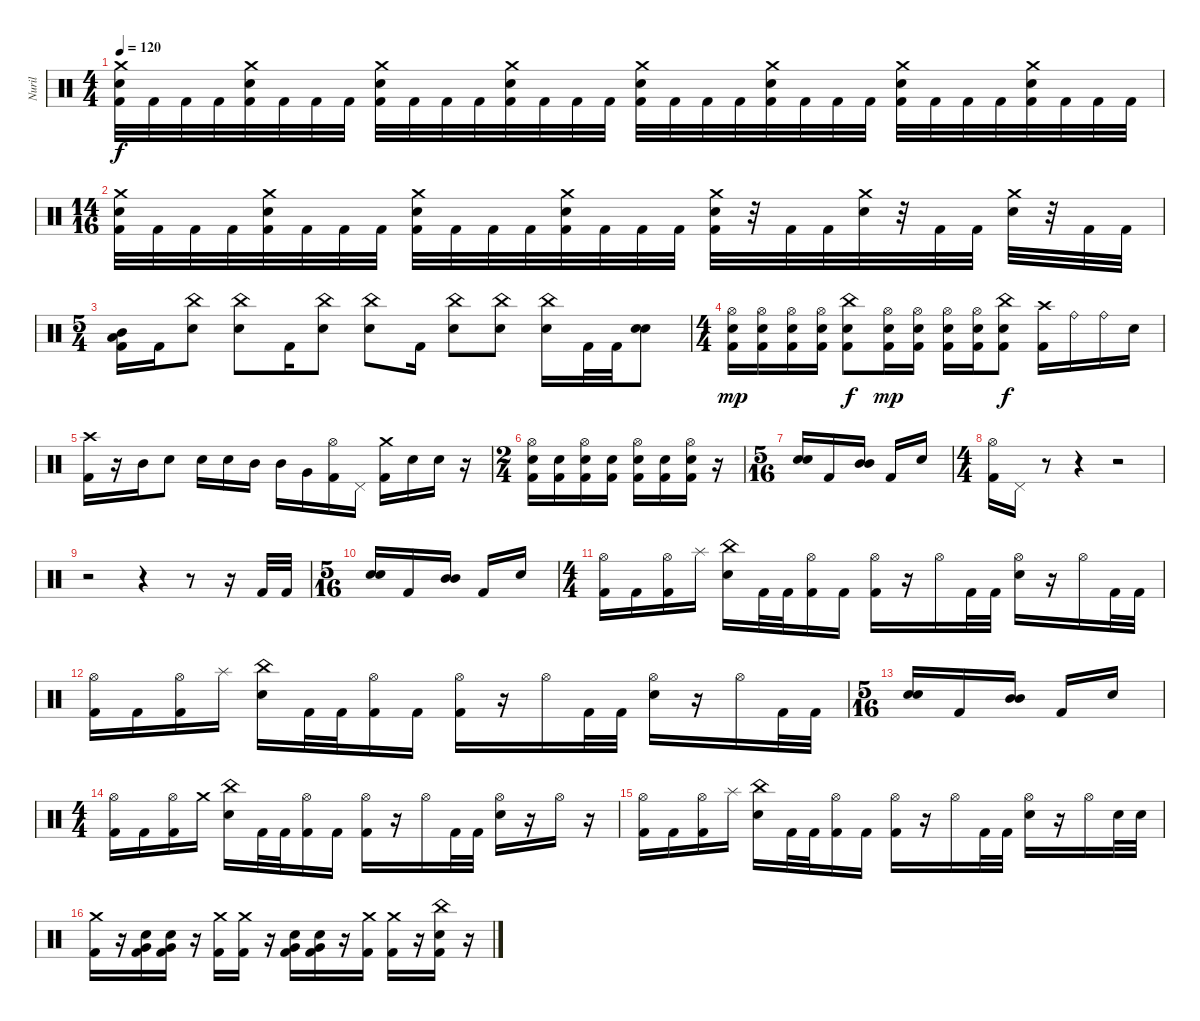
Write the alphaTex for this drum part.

\track ("Nuril" "Nuril") {instrument percussion}
\staff {score}
\articulation defaults
\ts (4 4)
\tempo 120
\clef neutral
\ks c
("Crash medium (hit)" "Electric Snare (hit)" "Kick (hit) 2").32{dy f} "Kick (hit) 2".32 "Kick (hit) 2".32 "Kick (hit) 2".32 ("Crash medium (hit)" "Electric Snare (hit)" "Kick (hit) 2").32 "Kick (hit) 2".32 "Kick (hit) 2".32 "Kick (hit) 2".32 ("Crash medium (hit)" "Electric Snare (hit)" "Kick (hit) 2").32 "Kick (hit) 2".32 "Kick (hit) 2".32 "Kick (hit) 2".32 ("Crash medium (hit)" "Electric Snare (hit)" "Kick (hit) 2").32 "Kick (hit) 2".32 "Kick (hit) 2".32 "Kick (hit) 2".32 ("Crash medium (hit)" "Electric Snare (hit)" "Kick (hit) 2").32 "Kick (hit) 2".32 "Kick (hit) 2".32 "Kick (hit) 2".32 ("Crash medium (hit)" "Electric Snare (hit)" "Kick (hit) 2").32 "Kick (hit) 2".32 "Kick (hit) 2".32 "Kick (hit) 2".32 ("Crash medium (hit)" "Electric Snare (hit)" "Kick (hit) 2").32 "Kick (hit) 2".32 "Kick (hit) 2".32 "Kick (hit) 2".32 ("Crash medium (hit)" "Electric Snare (hit)" "Kick (hit) 2").32 "Kick (hit) 2".32 "Kick (hit) 2".32 "Kick (hit) 2".32 |
\ts (14 16)
("Crash medium (hit)" "Electric Snare (hit)" "Kick (hit) 2").32 "Kick (hit) 2".32 "Kick (hit) 2".32 "Kick (hit) 2".32 ("Crash medium (hit)" "Electric Snare (hit)" "Kick (hit) 2").32 "Kick (hit) 2".32 "Kick (hit) 2".32 "Kick (hit) 2".32 ("Crash medium (hit)" "Electric Snare (hit)" "Kick (hit) 2").32 "Kick (hit) 2".32 "Kick (hit) 2".32 "Kick (hit) 2".32 ("Crash medium (hit)" "Electric Snare (hit)" "Kick (hit) 2").32 "Kick (hit) 2".32 "Kick (hit) 2".32 "Kick (hit) 2".32 ("Crash medium (hit)" "Electric Snare (hit)" "Kick (hit) 2").32 r.32 "Kick (hit) 2".32 "Kick (hit) 2".32 ("Crash medium (hit)" "Electric Snare (hit)").32 r.32 "Kick (hit) 2".32 "Kick (hit) 2".32 ("Crash medium (hit)" "Electric Snare (hit)").32 r.32 "Kick (hit) 2".32 "Kick (hit) 2".32 |
\ts (5 4)
("Low Tom (hit)" "Mid Tom (hit)" "Kick (hit) 2").16{bd 120} "Kick (hit) 2".16 ("China (hit)" "Electric Snare (hit)").8 ("China (hit)" "Electric Snare (hit)").8 "Kick (hit) 2".16 ("China (hit)" "Electric Snare (hit)").8 ("China (hit)" "Electric Snare (hit)").8 "Kick (hit) 2".16 ("China (hit)" "Electric Snare (hit)").8 ("China (hit)" "Electric Snare (hit)").8 ("China (hit)" "Electric Snare (hit)").16 "Kick (hit) 2".32 "Kick (hit) 2".32 ("Electric Snare (hit)" "Electric Snare (hit)").8{bu 480} |
\ts (4 4)
("Hi-Hat (open)" "Kick (hit) 2" "Electric Snare (hit)").16{dy mp} ("Hi-Hat (open)" "Kick (hit) 2" "Electric Snare (hit)").16 ("Hi-Hat (open)" "Kick (hit) 2" "Electric Snare (hit)").16 ("Hi-Hat (open)" "Kick (hit) 2" "Electric Snare (hit)").16 ("China (hit)" "Kick (hit) 2" "Electric Snare (hit)").8{dy f} ("Hi-Hat (open)" "Kick (hit) 2" "Electric Snare (hit)").16{dy mp} ("Hi-Hat (open)" "Kick (hit) 2" "Electric Snare (hit)").16 ("Hi-Hat (open)" "Kick (hit) 2" "Electric Snare (hit)").16 ("Hi-Hat (open)" "Kick (hit) 2" "Electric Snare (hit)").16 ("China (hit)" "Kick (hit) 2" "Electric Snare (hit)").8{dy f} ("Crash high (hit)" "Kick (hit) 2").16 "Ride (bell)".16 "Ride (bell)".16 "Electric Snare (hit)".16 |
("Crash high (hit)" "Kick (hit) 2").16 r.16 "Mid Tom (hit)".16 "Electric Snare (hit)".8 "Electric Snare (hit)".16 "Electric Snare (hit)".16 "Mid Tom (hit)".16 "Mid Tom (hit)".16 "Very Low Tom (hit)".16 ("Hi-Hat (open)" "Kick (hit) 2").16 "Pedal Hi-Hat (hit)".16 ("Crash medium (hit)" "Kick (hit) 2").16 "Electric Snare (hit)".16 "Electric Snare (hit)".16 r.16 |
\ts (2 4)
("Hi-Hat (open)" "Kick (hit) 2" "Electric Snare (hit)").16 ("Kick (hit) 2" "Electric Snare (hit)").16 ("Hi-Hat (open)" "Kick (hit) 2" "Electric Snare (hit)").16 ("Kick (hit) 2" "Electric Snare (hit)").16 ("Hi-Hat (open)" "Kick (hit) 2" "Electric Snare (hit)").16 ("Kick (hit) 2" "Electric Snare (hit)").16 ("Hi-Hat (open)" "Kick (hit) 2" "Electric Snare (hit)").16 r.16 |
\ts (5 16)
("Electric Snare (hit)" "Electric Snare (hit)").16{bd 60} "Kick (hit) 2".16 ("Mid Tom (hit)" "Mid Tom (hit)").16{bd 60} "Kick (hit) 2".16 "Electric Snare (hit)".16 |
\ts (4 4)
("Hi-Hat (open)" "Kick (hit) 2").16 "Pedal Hi-Hat (hit)".16 r.8 r.4 r.2 |
r.2 r.4 r.8 r.16 "Kick (hit) 2".32 "Kick (hit) 2".32 |
\ts (5 16)
("Electric Snare (hit)" "Electric Snare (hit)").16{bd 60} "Kick (hit) 2".16 ("Mid Tom (hit)" "Mid Tom (hit)").16{bd 60} "Kick (hit) 2".16 "Electric Snare (hit)".16 |
\ts (4 4)
("Hi-Hat (open)" "Kick (hit) 2").16 "Kick (hit) 2".16 ("Hi-Hat (open)" "Kick (hit) 2").16 "Splash (hit)".16 ("China (hit)" "Electric Snare (hit)").16 "Kick (hit) 2".32 "Kick (hit) 2".32 ("Hi-Hat (open)" "Kick (hit) 2").16 "Kick (hit) 2".16 ("Hi-Hat (open)" "Kick (hit) 2").16 r.16 "Hi-Hat (open)".16 "Kick (hit) 2".32 "Kick (hit) 2".32 ("Hi-Hat (open)" "Electric Snare (hit)").16 r.16 "Hi-Hat (open)".16 "Kick (hit) 2".32 "Kick (hit) 2".32 |
("Hi-Hat (open)" "Kick (hit) 2").16 "Kick (hit) 2".16 ("Hi-Hat (open)" "Kick (hit) 2").16 "Splash (hit)".16 ("China (hit)" "Electric Snare (hit)").16 "Kick (hit) 2".32 "Kick (hit) 2".32 ("Hi-Hat (open)" "Kick (hit) 2").16 "Kick (hit) 2".16 ("Hi-Hat (open)" "Kick (hit) 2").16 r.16 "Hi-Hat (open)".16 "Kick (hit) 2".32 "Kick (hit) 2".32 ("Hi-Hat (open)" "Electric Snare (hit)").16 r.16 "Hi-Hat (open)".16 "Kick (hit) 2".32 "Kick (hit) 2".32 |
\ts (5 16)
("Electric Snare (hit)" "Electric Snare (hit)").16{bd 60} "Kick (hit) 2".16 ("Mid Tom (hit)" "Mid Tom (hit)").16{bd 60} "Kick (hit) 2".16 "Electric Snare (hit)".16 |
\ts (4 4)
("Hi-Hat (open)" "Kick (hit) 2").16 "Kick (hit) 2".16 ("Hi-Hat (open)" "Kick (hit) 2").16 "Crash medium (hit)".16 ("China (hit)" "Electric Snare (hit)").16 "Kick (hit) 2".32 "Kick (hit) 2".32 ("Hi-Hat (open)" "Kick (hit) 2").16 "Kick (hit) 2".16 ("Hi-Hat (open)" "Kick (hit) 2").16 r.16 "Hi-Hat (open)".16 "Kick (hit) 2".32 "Kick (hit) 2".32 ("Hi-Hat (open)" "Electric Snare (hit)").16 r.16 "Hi-Hat (open)".16 r.16 |
("Hi-Hat (open)" "Kick (hit) 2").16 "Kick (hit) 2".16 ("Hi-Hat (open)" "Kick (hit) 2").16 "Splash (hit)".16 ("China (hit)" "Electric Snare (hit)").16 "Kick (hit) 2".32 "Kick (hit) 2".32 ("Hi-Hat (open)" "Kick (hit) 2").16 "Kick (hit) 2".16 ("Hi-Hat (open)" "Kick (hit) 2").16 r.16 "Hi-Hat (open)".16 "Kick (hit) 2".32 "Kick (hit) 2".32 ("Hi-Hat (open)" "Electric Snare (hit)").16 r.16 "Hi-Hat (open)".16 "Electric Snare (hit)".32 "Electric Snare (hit)".32 |
("Crash medium (hit)" "Kick (hit) 2").16 r.16 ("Very Low Tom (hit)" "Electric Snare (hit)" "Kick (hit) 2").16 ("Very Low Tom (hit)" "Electric Snare (hit)" "Kick (hit) 2").16 r.16 ("Crash medium (hit)" "Kick (hit) 2").16 ("Crash medium (hit)" "Kick (hit) 2").16 r.16 ("Very Low Tom (hit)" "Electric Snare (hit)" "Kick (hit) 2").16 ("Very Low Tom (hit)" "Electric Snare (hit)" "Kick (hit) 2").16 r.16 ("Crash medium (hit)" "Kick (hit) 2").16 ("Crash medium (hit)" "Kick (hit) 2").16 r.16 ("China (hit)" "Electric Snare (hit)" "Kick (hit) 2").16 r.16
